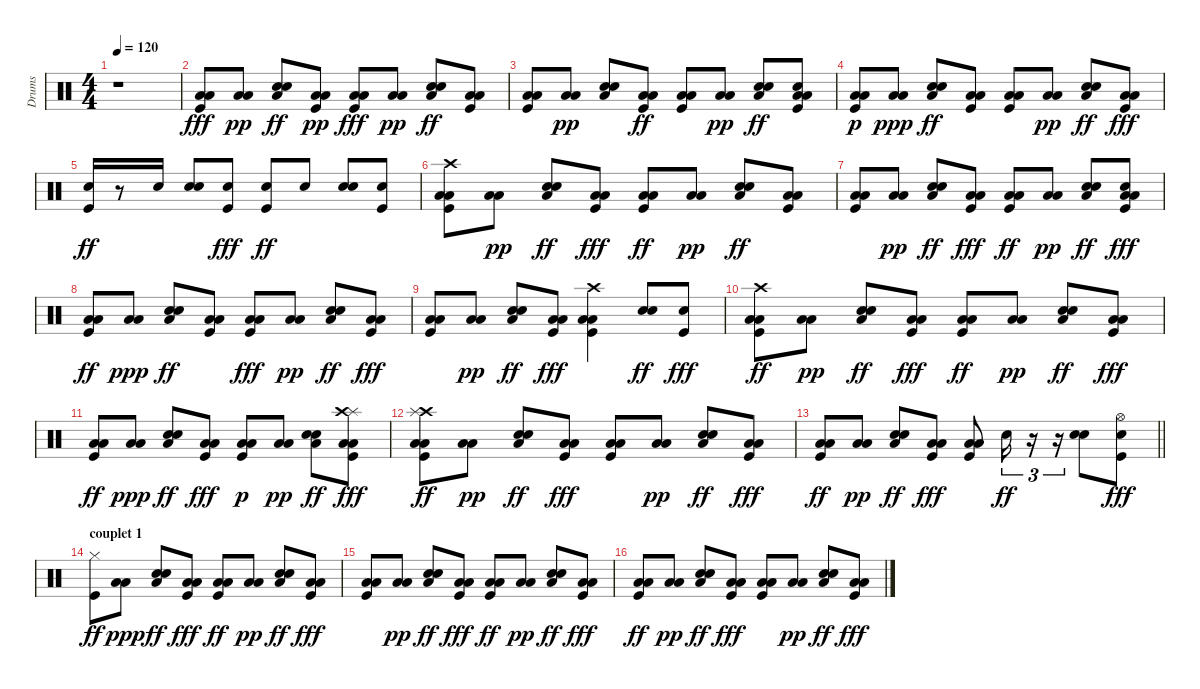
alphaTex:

\track ("Drums" "Drums") {instrument percussion}
\staff {score}
\articulation defaults
\ts (4 4)
\tempo 120
\clef neutral
\ks c
r.1{dy fff} |
("Kick (hit)" "Low Floor Tom (hit)" "Low Tom (hit)").8 ("Low Floor Tom (hit)" "Low Tom (hit)").8{dy pp} ("Snare (hit) 2" "Hand Clap (hit)" "Low Floor Tom (hit)").8{dy ff} ("Kick (hit)" "Low Floor Tom (hit)" "Low Tom (hit)").8{dy pp} ("Low Tom (hit)" "Low Floor Tom (hit)" "Kick (hit)").8{dy fff} ("Low Floor Tom (hit)" "Low Tom (hit)").8{dy pp} ("Low Floor Tom (hit)" "Hand Clap (hit)" "Snare (hit) 2").8{dy ff} ("Low Tom (hit)" "Low Floor Tom (hit)" "Kick (hit)").8 |
("Low Tom (hit)" "Low Floor Tom (hit)" "Kick (hit)").8 ("Low Tom (hit)" "Low Floor Tom (hit)").8{dy pp} ("Hand Clap (hit)" "Snare (hit) 2" "Low Floor Tom (hit)").8 ("Low Tom (hit)" "Low Floor Tom (hit)" "Kick (hit)").8{dy ff} ("Low Tom (hit)" "Low Floor Tom (hit)" "Kick (hit)").8 ("Low Floor Tom (hit)" "Low Tom (hit)").8{dy pp} ("Snare (hit) 2" "Low Floor Tom (hit)" "Hand Clap (hit)").8{dy ff} ("Snare (hit) 2" "Low Tom (hit)" "Low Floor Tom (hit)" "Kick (hit)").8 |
("Low Tom (hit)" "Low Floor Tom (hit)" "Kick (hit)").8{dy p} ("Low Floor Tom (hit)" "Low Tom (hit)").8{dy ppp} ("Hand Clap (hit)" "Low Floor Tom (hit)" "Snare (hit) 2").8{dy ff} ("Low Tom (hit)" "Low Floor Tom (hit)" "Kick (hit)").8 ("Low Tom (hit)" "Low Floor Tom (hit)" "Kick (hit)").8 ("Low Tom (hit)" "Low Floor Tom (hit)").8{dy pp} ("Snare (hit) 2" "Low Floor Tom (hit)" "Hand Clap (hit)").8{dy ff} ("Low Tom (hit)" "Low Floor Tom (hit)" "Kick (hit)").8{dy fff} |
("Snare (hit) 2" "Kick (hit)").16{dy ff} r.8 "Snare (hit) 2".16 ("Hand Clap (hit)" "Snare (hit) 2").8 ("Snare (hit) 2" "Kick (hit)").8{dy fff} ("Snare (hit) 2" "Kick (hit)").8{dy ff} "Snare (hit) 2".8 ("Hand Clap (hit)" "Snare (hit) 2").8 ("Kick (hit)" "Snare (hit) 2").8 |
("Crash high (hit)" "Low Tom (hit)" "Low Floor Tom (hit)" "Kick (hit)").8 ("Low Tom (hit)" "Low Floor Tom (hit)").8{dy pp} ("Snare (hit) 2" "Low Floor Tom (hit)" "Hand Clap (hit)").8{dy ff} ("Low Tom (hit)" "Low Floor Tom (hit)" "Kick (hit)").8{dy fff} ("Low Tom (hit)" "Low Floor Tom (hit)" "Kick (hit)").8{dy ff} ("Low Tom (hit)" "Low Floor Tom (hit)").8{dy pp} ("Low Floor Tom (hit)" "Hand Clap (hit)" "Snare (hit) 2").8{dy ff} ("Low Tom (hit)" "Low Floor Tom (hit)" "Kick (hit)").8 |
("Low Tom (hit)" "Low Floor Tom (hit)" "Kick (hit)").8 ("Low Tom (hit)" "Low Floor Tom (hit)").8{dy pp} ("Snare (hit) 2" "Low Floor Tom (hit)" "Hand Clap (hit)").8{dy ff} ("Low Tom (hit)" "Low Floor Tom (hit)" "Kick (hit)").8{dy fff} ("Low Tom (hit)" "Low Floor Tom (hit)" "Kick (hit)").8{dy ff} ("Low Floor Tom (hit)" "Low Tom (hit)").8{dy pp} ("Snare (hit) 2" "Low Floor Tom (hit)" "Hand Clap (hit)").8{dy ff} ("Snare (hit) 2" "Low Tom (hit)" "Low Floor Tom (hit)" "Kick (hit)").8{dy fff} |
("Low Tom (hit)" "Low Floor Tom (hit)" "Kick (hit)").8{dy ff} ("Low Floor Tom (hit)" "Low Tom (hit)").8{dy ppp} ("Low Floor Tom (hit)" "Hand Clap (hit)" "Snare (hit) 2").8{dy ff} ("Low Tom (hit)" "Low Floor Tom (hit)" "Kick (hit)").8 ("Low Tom (hit)" "Low Floor Tom (hit)" "Kick (hit)").8{dy fff} ("Low Tom (hit)" "Low Floor Tom (hit)").8{dy pp} ("Snare (hit) 2" "Low Floor Tom (hit)" "Hand Clap (hit)").8{dy ff} ("Low Tom (hit)" "Low Floor Tom (hit)" "Kick (hit)").8{dy fff} |
("Low Tom (hit)" "Low Floor Tom (hit)" "Kick (hit)").8 ("Low Tom (hit)" "Low Floor Tom (hit)").8{dy pp} ("Snare (hit) 2" "Low Floor Tom (hit)" "Hand Clap (hit)").8{dy ff} ("Low Tom (hit)" "Low Floor Tom (hit)" "Kick (hit)").8{dy fff} ("Low Tom (hit)" "Low Floor Tom (hit)" "Kick (hit)" "Crash high (hit)").4 ("Snare (hit) 2" "Hand Clap (hit)").8{dy ff} ("Snare (hit) 2" "Kick (hit)").8{dy fff} |
("Crash high (hit)" "Low Tom (hit)" "Low Floor Tom (hit)" "Kick (hit)").8{dy ff} ("Low Tom (hit)" "Low Floor Tom (hit)").8{dy pp} ("Snare (hit) 2" "Low Floor Tom (hit)" "Hand Clap (hit)").8{dy ff} ("Low Tom (hit)" "Low Floor Tom (hit)" "Kick (hit)").8{dy fff} ("Low Tom (hit)" "Low Floor Tom (hit)" "Kick (hit)").8{dy ff} ("Low Floor Tom (hit)" "Low Tom (hit)").8{dy pp} ("Snare (hit) 2" "Low Floor Tom (hit)" "Hand Clap (hit)").8{dy ff} ("Low Tom (hit)" "Low Floor Tom (hit)" "Kick (hit)").8{dy fff} |
("Low Tom (hit)" "Low Floor Tom (hit)" "Kick (hit)").8{dy ff} ("Low Floor Tom (hit)" "Low Tom (hit)").8{dy ppp} ("Low Floor Tom (hit)" "Hand Clap (hit)" "Snare (hit) 2").8{dy ff} ("Low Tom (hit)" "Low Floor Tom (hit)" "Kick (hit)").8{dy fff} ("Kick (hit)" "Low Tom (hit)" "Low Floor Tom (hit)").8{dy p} ("Low Tom (hit)" "Low Floor Tom (hit)").8{dy pp} ("Snare (hit) 2" "Low Floor Tom (hit)" "Hand Clap (hit)").8{dy ff} ("Splash (hit)" "Crash high (hit)" "Low Tom (hit)" "Low Floor Tom (hit)" "Kick (hit)").8{dy fff} |
("Crash high (hit)" "Splash (hit)" "Low Tom (hit)" "Low Floor Tom (hit)" "Kick (hit)").8{dy ff} ("Low Tom (hit)" "Low Floor Tom (hit)").8{dy pp} ("Snare (hit) 2" "Low Floor Tom (hit)" "Hand Clap (hit)").8{dy ff} ("Low Tom (hit)" "Low Floor Tom (hit)" "Kick (hit)").8{dy fff} ("Low Tom (hit)" "Low Floor Tom (hit)" "Kick (hit)").8 ("Low Tom (hit)" "Low Floor Tom (hit)").8{dy pp} ("Low Floor Tom (hit)" "Hand Clap (hit)" "Snare (hit) 2").8{dy ff} ("Low Tom (hit)" "Low Floor Tom (hit)" "Kick (hit)").8{dy fff} |
\barLineRight lightlight
("Low Tom (hit)" "Low Floor Tom (hit)" "Kick (hit)").8{dy ff} ("Low Tom (hit)" "Low Floor Tom (hit)").8{dy pp} ("Snare (hit) 2" "Low Floor Tom (hit)" "Hand Clap (hit)").8{dy ff} ("Low Tom (hit)" "Low Floor Tom (hit)" "Kick (hit)").8{dy fff} ("Low Tom (hit)" "Low Floor Tom (hit)" "Kick (hit)").8 "Snare (hit) 2".16{tu (3 2) dy ff} r.16{tu (3 2)} r.16{tu (3 2)} ("Snare (hit) 2" "Hand Clap (hit)").8 ("Snare (hit) 2" "Kick (hit)" "Hi-Hat (open)").8{dy fff} |
\section ("" "couplet 1")
("Hi-Hat (closed)" "Kick (hit)").8{dy ff} ("Low Floor Tom (hit)" "Low Tom (hit)").8{dy ppp} ("Hand Clap (hit)" "Low Floor Tom (hit)" "Snare (hit) 2").8{dy ff} ("Low Tom (hit)" "Low Floor Tom (hit)" "Kick (hit)").8{dy fff} ("Low Tom (hit)" "Low Floor Tom (hit)" "Kick (hit)").8{dy ff} ("Low Tom (hit)" "Low Floor Tom (hit)").8{dy pp} ("Snare (hit) 2" "Low Floor Tom (hit)" "Hand Clap (hit)").8{dy ff} ("Low Tom (hit)" "Low Floor Tom (hit)" "Kick (hit)").8{dy fff} |
("Low Tom (hit)" "Low Floor Tom (hit)" "Kick (hit)").8 ("Low Tom (hit)" "Low Floor Tom (hit)").8{dy pp} ("Low Floor Tom (hit)" "Hand Clap (hit)" "Snare (hit) 2").8{dy ff} ("Low Tom (hit)" "Low Floor Tom (hit)" "Kick (hit)").8{dy fff} ("Low Tom (hit)" "Low Floor Tom (hit)" "Kick (hit)").8{dy ff} ("Low Tom (hit)" "Low Floor Tom (hit)").8{dy pp} ("Low Floor Tom (hit)" "Hand Clap (hit)" "Snare (hit) 2").8{dy ff} ("Low Tom (hit)" "Low Floor Tom (hit)" "Kick (hit)").8{dy fff} |
("Low Tom (hit)" "Low Floor Tom (hit)" "Kick (hit)").8{dy ff} ("Low Tom (hit)" "Low Floor Tom (hit)").8{dy pp} ("Snare (hit) 2" "Low Floor Tom (hit)" "Hand Clap (hit)").8{dy ff} ("Low Tom (hit)" "Low Floor Tom (hit)" "Kick (hit)").8{dy fff} ("Low Tom (hit)" "Low Floor Tom (hit)" "Kick (hit)").8 ("Low Floor Tom (hit)" "Low Tom (hit)").8{dy pp} ("Snare (hit) 2" "Low Floor Tom (hit)" "Hand Clap (hit)").8{dy ff} ("Low Tom (hit)" "Low Floor Tom (hit)" "Kick (hit)").8{dy fff}
